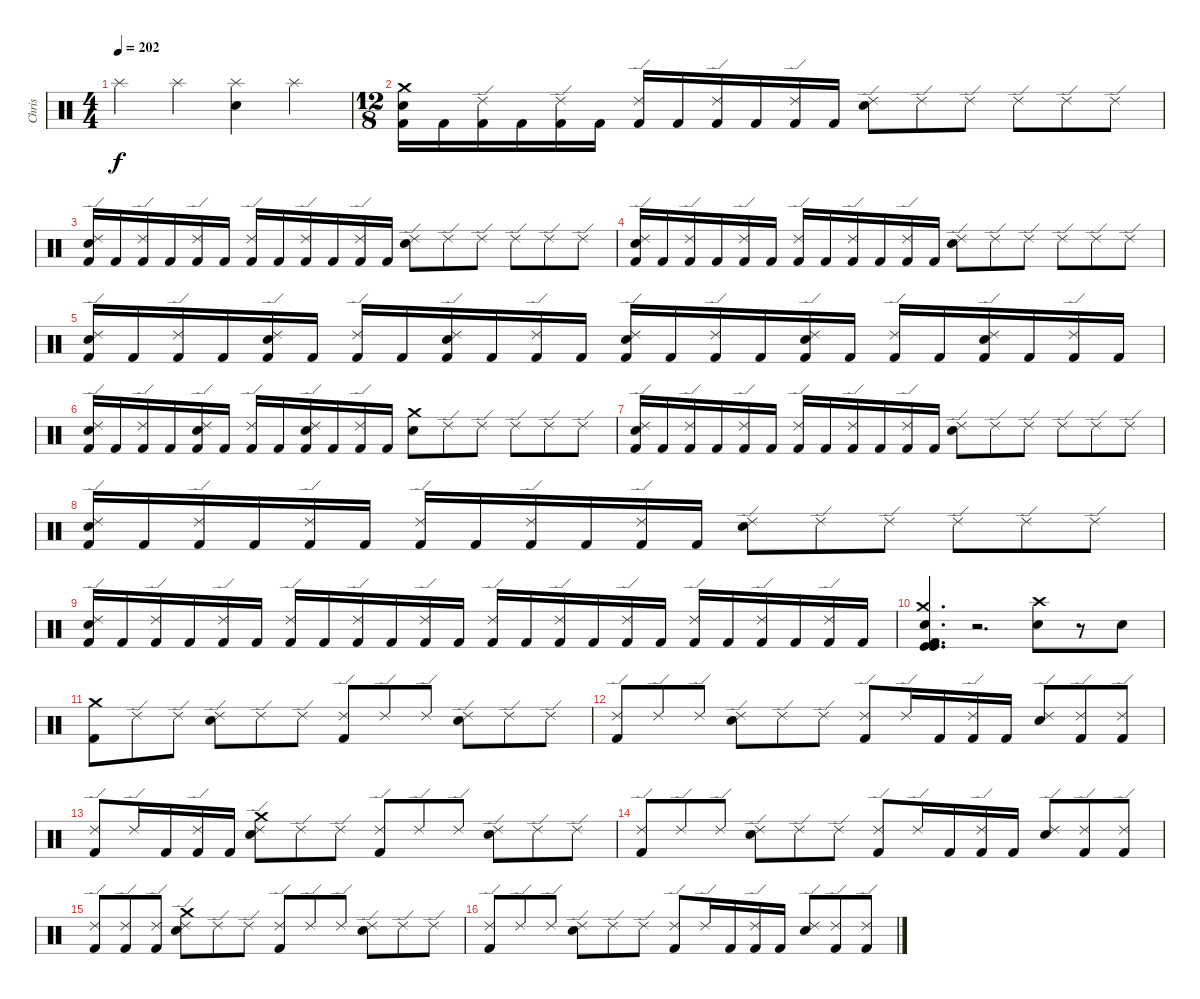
\track ("Chris" "Chris") {instrument percussion}
\staff {score}
\articulation defaults
\ts (4 4)
\tempo 202
\clef neutral
\ks c "Splash (hit)".4{dy f} "Splash (hit)".4
("Snare (hit)" "Splash (hit)").4 "Splash (hit)".4 |
\ts (12 8)
("Kick (hit) 2" "Electric Snare (hit)" "Crash medium (hit)").16 "Kick (hit) 2".16 ("Kick (hit) 2" "Ride (edge) 2").16 "Kick (hit) 2".16 ("Kick (hit) 2" "Ride (edge) 2").16 "Kick (hit) 2".16 ("Kick (hit) 2" "Ride (edge) 2").16 "Kick (hit) 2".16 ("Kick (hit) 2" "Ride (edge) 2").16 "Kick (hit) 2".16 ("Kick (hit) 2" "Ride (edge) 2").16 "Kick (hit) 2".16 ("Electric Snare (hit)" "Ride (edge) 2").8 "Ride (edge) 2".8 "Ride (edge) 2".8 "Ride (edge) 2".8 "Ride (edge) 2".8 "Ride (edge) 2".8 |
("Kick (hit) 2" "Electric Snare (hit)" "Ride (edge) 2").16 "Kick (hit) 2".16 ("Kick (hit) 2" "Ride (edge) 2").16 "Kick (hit) 2".16 ("Kick (hit) 2" "Ride (edge) 2").16 "Kick (hit) 2".16 ("Kick (hit) 2" "Ride (edge) 2").16 "Kick (hit) 2".16 ("Kick (hit) 2" "Ride (edge) 2").16 "Kick (hit) 2".16 ("Kick (hit) 2" "Ride (edge) 2").16 "Kick (hit) 2".16 ("Electric Snare (hit)" "Ride (edge) 2").8 "Ride (edge) 2".8 "Ride (edge) 2".8 "Ride (edge) 2".8 "Ride (edge) 2".8 "Ride (edge) 2".8 |
("Kick (hit) 2" "Electric Snare (hit)" "Ride (edge) 2").16 "Kick (hit) 2".16 ("Kick (hit) 2" "Ride (edge) 2").16 "Kick (hit) 2".16 ("Kick (hit) 2" "Ride (edge) 2").16 "Kick (hit) 2".16 ("Kick (hit) 2" "Ride (edge) 2").16 "Kick (hit) 2".16 ("Kick (hit) 2" "Ride (edge) 2").16 "Kick (hit) 2".16 ("Kick (hit) 2" "Ride (edge) 2").16 "Kick (hit) 2".16 ("Electric Snare (hit)" "Ride (edge) 2").8 "Ride (edge) 2".8 "Ride (edge) 2".8 "Ride (edge) 2".8 "Ride (edge) 2".8 "Ride (edge) 2".8 |
("Kick (hit) 2" "Electric Snare (hit)" "Ride (edge) 2").16 "Kick (hit) 2".16 ("Kick (hit) 2" "Ride (edge) 2").16 "Kick (hit) 2".16 ("Kick (hit) 2" "Electric Snare (hit)" "Ride (edge) 2").16 "Kick (hit) 2".16 ("Kick (hit) 2" "Ride (edge) 2").16 "Kick (hit) 2".16 ("Kick (hit) 2" "Electric Snare (hit)" "Ride (edge) 2").16 "Kick (hit) 2".16 ("Kick (hit) 2" "Ride (edge) 2").16 "Kick (hit) 2".16 ("Kick (hit) 2" "Electric Snare (hit)" "Ride (edge) 2").16 "Kick (hit) 2".16 ("Kick (hit) 2" "Ride (edge) 2").16 "Kick (hit) 2".16 ("Kick (hit) 2" "Electric Snare (hit)" "Ride (edge) 2").16 "Kick (hit) 2".16 ("Kick (hit) 2" "Ride (edge) 2").16 "Kick (hit) 2".16 ("Kick (hit) 2" "Electric Snare (hit)" "Ride (edge) 2").16 "Kick (hit) 2".16 ("Kick (hit) 2" "Ride (edge) 2").16 "Kick (hit) 2".16 |
("Kick (hit) 2" "Electric Snare (hit)" "Ride (edge) 2").16 "Kick (hit) 2".16 ("Kick (hit) 2" "Ride (edge) 2").16 "Kick (hit) 2".16 ("Kick (hit) 2" "Electric Snare (hit)" "Ride (edge) 2").16 "Kick (hit) 2".16 ("Kick (hit) 2" "Ride (edge) 2").16 "Kick (hit) 2".16 ("Kick (hit) 2" "Electric Snare (hit)" "Ride (edge) 2").16 "Kick (hit) 2".16 ("Kick (hit) 2" "Ride (edge) 2").16 "Kick (hit) 2".16 ("Electric Snare (hit)" "Crash medium (hit)").8 "Ride (edge) 2".8 "Ride (edge) 2".8 "Ride (edge) 2".8 "Ride (edge) 2".8 "Ride (edge) 2".8 |
("Kick (hit) 2" "Electric Snare (hit)" "Ride (edge) 2").16 "Kick (hit) 2".16 ("Kick (hit) 2" "Ride (edge) 2").16 "Kick (hit) 2".16 ("Kick (hit) 2" "Ride (edge) 2").16 "Kick (hit) 2".16 ("Kick (hit) 2" "Ride (edge) 2").16 "Kick (hit) 2".16 ("Kick (hit) 2" "Ride (edge) 2").16 "Kick (hit) 2".16 ("Kick (hit) 2" "Ride (edge) 2").16 "Kick (hit) 2".16 ("Electric Snare (hit)" "Ride (edge) 2").8 "Ride (edge) 2".8 "Ride (edge) 2".8 "Ride (edge) 2".8 "Ride (edge) 2".8 "Ride (edge) 2".8 |
("Kick (hit) 2" "Electric Snare (hit)" "Ride (edge) 2").16 "Kick (hit) 2".16 ("Kick (hit) 2" "Ride (edge) 2").16 "Kick (hit) 2".16 ("Kick (hit) 2" "Ride (edge) 2").16 "Kick (hit) 2".16 ("Kick (hit) 2" "Ride (edge) 2").16 "Kick (hit) 2".16 ("Kick (hit) 2" "Ride (edge) 2").16 "Kick (hit) 2".16 ("Kick (hit) 2" "Ride (edge) 2").16 "Kick (hit) 2".16 ("Electric Snare (hit)" "Ride (edge) 2").8 "Ride (edge) 2".8 "Ride (edge) 2".8 "Ride (edge) 2".8 "Ride (edge) 2".8 "Ride (edge) 2".8 |
("Kick (hit) 2" "Ride (edge) 2" "Electric Snare (hit)").16 "Kick (hit) 2".16 ("Kick (hit) 2" "Ride (edge) 2").16 "Kick (hit) 2".16 ("Kick (hit) 2" "Ride (edge) 2").16 "Kick (hit) 2".16 ("Kick (hit) 2" "Ride (edge) 2").16 "Kick (hit) 2".16 ("Kick (hit) 2" "Ride (edge) 2").16 "Kick (hit) 2".16 ("Kick (hit) 2" "Ride (edge) 2").16 "Kick (hit) 2".16 ("Kick (hit) 2" "Ride (edge) 2").16 "Kick (hit) 2".16 ("Kick (hit) 2" "Ride (edge) 2").16 "Kick (hit) 2".16 ("Kick (hit) 2" "Ride (edge) 2").16 "Kick (hit) 2".16 ("Kick (hit) 2" "Ride (edge) 2").16 "Kick (hit) 2".16 ("Kick (hit) 2" "Ride (edge) 2").16 "Kick (hit) 2".16 ("Kick (hit) 2" "Ride (edge) 2").16 "Kick (hit) 2".16 |
("Crash medium (hit)" "Kick (hit)" "Kick (hit)" "Snare (hit)" "Kick (hit) 2").4{d} r.2{d} ("Crash high (hit)" "Electric Snare (hit)").8 r.8 "Electric Snare (hit)".8 |
("Crash medium (hit)" "Kick (hit) 2").8 "Ride (edge) 2".8 "Ride (edge) 2".8 ("Ride (edge) 2" "Electric Snare (hit)").8 "Ride (edge) 2".8 "Ride (edge) 2".8 ("Ride (edge) 2" "Kick (hit) 2").8 "Ride (edge) 2".8 "Ride (edge) 2".8 ("Ride (edge) 2" "Electric Snare (hit)").8 "Ride (edge) 2".8 "Ride (edge) 2".8 |
("Ride (edge) 2" "Kick (hit) 2").8 "Ride (edge) 2".8 "Ride (edge) 2".8 ("Ride (edge) 2" "Electric Snare (hit)").8 "Ride (edge) 2".8 "Ride (edge) 2".8 ("Ride (edge) 2" "Kick (hit) 2").8 "Ride (edge) 2".16 "Kick (hit) 2".16 ("Ride (edge) 2" "Kick (hit) 2").16 "Kick (hit) 2".16 ("Ride (edge) 2" "Electric Snare (hit)").8 ("Ride (edge) 2" "Kick (hit) 2").8 ("Ride (edge) 2" "Kick (hit) 2").8 |
("Ride (edge) 2" "Kick (hit) 2").8 "Ride (edge) 2".16 "Kick (hit) 2".16 ("Ride (edge) 2" "Kick (hit) 2").16 "Kick (hit) 2".16 ("Ride (edge) 2" "Electric Snare (hit)" "Crash medium (hit)").8 "Ride (edge) 2".8 "Ride (edge) 2".8 ("Ride (edge) 2" "Kick (hit) 2").8 "Ride (edge) 2".8 "Ride (edge) 2".8 ("Ride (edge) 2" "Electric Snare (hit)").8 "Ride (edge) 2".8 "Ride (edge) 2".8 |
("Ride (edge) 2" "Kick (hit) 2").8 "Ride (edge) 2".8 "Ride (edge) 2".8 ("Ride (edge) 2" "Electric Snare (hit)").8 "Ride (edge) 2".8 "Ride (edge) 2".8 ("Ride (edge) 2" "Kick (hit) 2").8 "Ride (edge) 2".16 "Kick (hit) 2".16 ("Ride (edge) 2" "Kick (hit) 2").16 "Kick (hit) 2".16 ("Ride (edge) 2" "Electric Snare (hit)").8 ("Ride (edge) 2" "Kick (hit) 2").8 ("Ride (edge) 2" "Kick (hit) 2").8 |
("Ride (edge) 2" "Kick (hit) 2").8 ("Ride (edge) 2" "Kick (hit) 2").8 ("Ride (edge) 2" "Kick (hit) 2").8 ("Ride (edge) 2" "Electric Snare (hit)" "Crash medium (hit)").8 "Ride (edge) 2".8 "Ride (edge) 2".8 ("Ride (edge) 2" "Kick (hit) 2").8 "Ride (edge) 2".8 "Ride (edge) 2".8 ("Ride (edge) 2" "Electric Snare (hit)").8 "Ride (edge) 2".8 "Ride (edge) 2".8 |
("Ride (edge) 2" "Kick (hit) 2").8 "Ride (edge) 2".8 "Ride (edge) 2".8 ("Ride (edge) 2" "Electric Snare (hit)").8 "Ride (edge) 2".8 "Ride (edge) 2".8 ("Ride (edge) 2" "Kick (hit) 2").8 "Ride (edge) 2".16 "Kick (hit) 2".16 ("Ride (edge) 2" "Kick (hit) 2").16 "Kick (hit) 2".16 ("Ride (edge) 2" "Electric Snare (hit)").8 ("Ride (edge) 2" "Kick (hit) 2").8 ("Ride (edge) 2" "Kick (hit) 2").8
